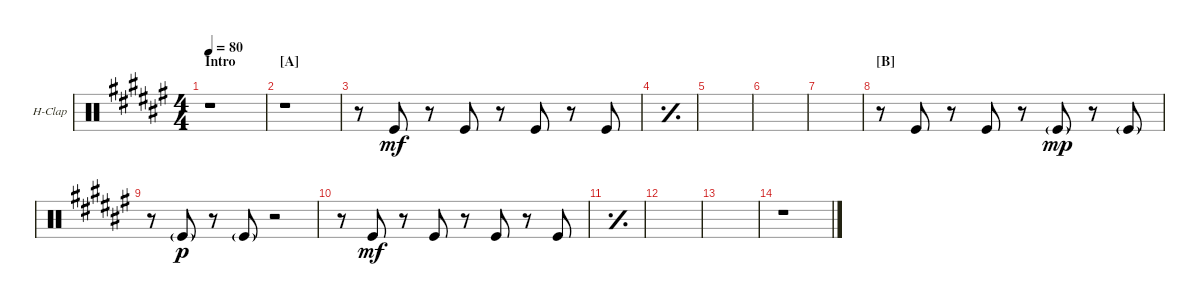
\defaultSystemsLayout 4
\bracketExtendMode groupsimilarinstruments
\firstSystemTrackNameOrientation horizontal
\otherSystemsTrackNameOrientation horizontal
\track ("Hand Clap" "H-Clap") {instrument percussion}
\staff {score}
\articulation defaults
\ts (4 4)
\section ("" "Intro")
\tempo 80
\clef neutral
\scale
0.559846
\ks f#
r.1{dy mf} |
\section ("A" "")
\scale
0.220077 r.1 |
\scale
0.220077 r.8 "Kick (hit)".8 r.8 "Kick (hit)".8 r.8 "Kick (hit)".8 r.8 "Kick (hit)".8 |
\simile simple
\scale
0.333333 |
\scale
0.333333 |
\scale
0.333333 |
\scale
0.333333 |
\section ("B" "")
\simile none
\scale
0.333333 r.8 "Kick (hit)".8 r.8 "Kick (hit)".8 r.8 "Kick (hit)"{g}.8{dy mp} r.8 "Kick (hit)"{g}.8 |
\scale
0.333333 r.8 "Kick (hit)"{g}.8{dy p} r.8 "Kick (hit)"{g}.8 r.2 |
\scale
0.333333 r.8 "Kick (hit)".8{dy mf} r.8 "Kick (hit)".8 r.8 "Kick (hit)".8 r.8 "Kick (hit)".8 |
\simile simple
\scale
0.333333 |
\scale
0.333333 |
|
\simile none
r.1
